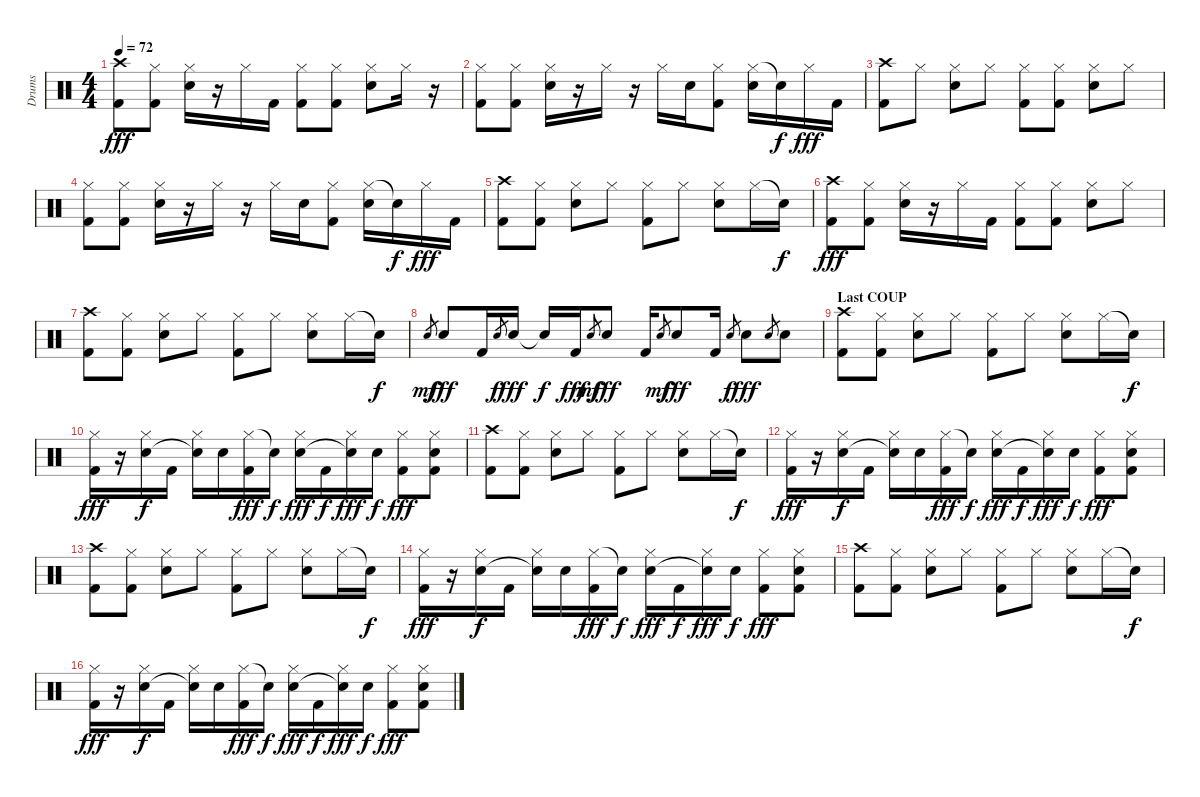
\track ("Drums" "Drums") {instrument percussion}
\staff {score}
\articulation defaults
\ts (4 4)
\tempo 72
\clef neutral
\ks c
("Crash high (hit)" "Kick (hit) 2").8{dy fff} ("Hi-Hat (closed)" "Kick (hit) 2").8 ("Hi-Hat (closed)" "Snare (hit) 2").16 r.16 "Hi-Hat (closed)".16 "Kick (hit) 2".16 ("Hi-Hat (closed)" "Kick (hit) 2").8 ("Hi-Hat (closed)" "Kick (hit) 2").8 ("Hi-Hat (closed)" "Snare (hit) 2").8 "Hi-Hat (closed)".16 r.16 |
("Hi-Hat (closed)" "Kick (hit) 2").8 ("Hi-Hat (closed)" "Kick (hit) 2").8 ("Hi-Hat (closed)" "Snare (hit) 2").16 r.16 "Hi-Hat (closed)".16 r.16 "Hi-Hat (closed)".16 "Snare (hit) 2".16 ("Hi-Hat (closed)" "Kick (hit) 2").8 ("Hi-Hat (closed)" "Snare (hit) 2").16 "Snare (hit)"{t}.16{dy f} "Hi-Hat (closed)".16{dy fff} "Kick (hit) 2".16 |
("Crash high (hit)" "Kick (hit) 2").8 "Hi-Hat (closed)".8 ("Hi-Hat (closed)" "Snare (hit) 2").8 "Hi-Hat (closed)".8 ("Hi-Hat (closed)" "Kick (hit) 2").8 ("Hi-Hat (closed)" "Kick (hit) 2").8 ("Hi-Hat (closed)" "Snare (hit) 2").8 "Hi-Hat (closed)".8 |
("Hi-Hat (closed)" "Kick (hit) 2").8 ("Hi-Hat (closed)" "Kick (hit) 2").8 ("Hi-Hat (closed)" "Snare (hit) 2").16 r.16 "Hi-Hat (closed)".16 r.16 "Hi-Hat (closed)".16 "Snare (hit) 2".16 ("Hi-Hat (closed)" "Kick (hit) 2").8 ("Hi-Hat (closed)" "Snare (hit) 2").16 "Snare (hit)"{t}.16{dy f} "Hi-Hat (closed)".16{dy fff} "Kick (hit) 2".16 |
("Crash high (hit)" "Kick (hit) 2").8 ("Hi-Hat (closed)" "Kick (hit) 2").8 ("Hi-Hat (closed)" "Snare (hit) 2").8 "Hi-Hat (closed)".8 ("Hi-Hat (closed)" "Kick (hit) 2").8 "Hi-Hat (closed)".8 ("Hi-Hat (closed)" "Snare (hit) 2").8 "Hi-Hat (closed)".16 "Snare (hit)"{t}.16{dy f} |
("Crash high (hit)" "Kick (hit) 2").8{dy fff} ("Hi-Hat (closed)" "Kick (hit) 2").8 ("Hi-Hat (closed)" "Snare (hit) 2").16 r.16 "Hi-Hat (closed)".16 "Kick (hit) 2".16 ("Hi-Hat (closed)" "Kick (hit) 2").8 ("Hi-Hat (closed)" "Kick (hit) 2").8 ("Hi-Hat (closed)" "Snare (hit) 2").8 "Hi-Hat (closed)".8 |
("Crash high (hit)" "Kick (hit) 2").8 ("Hi-Hat (closed)" "Kick (hit) 2").8 ("Hi-Hat (closed)" "Snare (hit) 2").8 "Hi-Hat (closed)".8 ("Hi-Hat (closed)" "Kick (hit) 2").8 "Hi-Hat (closed)".8 ("Hi-Hat (closed)" "Snare (hit) 2").8 "Hi-Hat (closed)".16 "Snare (hit)"{t}.16{dy f} |
"Snare (hit) 2".8{gr dy mf} "Snare (hit) 2".8{dy fff} "Kick (hit) 2".16 "Snare (hit) 2".8{gr dy f} "Snare (hit) 2".16{dy fff} "Snare (hit)"{t}.16{dy f} "Kick (hit) 2".16{dy fff} "Snare (hit) 2".8{gr dy mf} "Snare (hit) 2".8{dy fff} "Kick (hit) 2".16 "Snare (hit) 2".8{gr dy mf} "Snare (hit) 2".8{dy fff} "Kick (hit) 2".16 "Snare (hit) 2".8{gr dy f} "Snare (hit) 2".8{dy fff} "Snare (hit) 2".8{gr} "Snare (hit) 2".8 |
\section ("" "Last COUP")
("Crash high (hit)" "Kick (hit) 2").8 ("Hi-Hat (closed)" "Kick (hit) 2").8 ("Hi-Hat (closed)" "Snare (hit) 2").8 "Hi-Hat (closed)".8 ("Hi-Hat (closed)" "Kick (hit) 2").8 "Hi-Hat (closed)".8 ("Hi-Hat (closed)" "Snare (hit) 2").8 "Hi-Hat (closed)".16 "Snare (hit)"{t}.16{dy f} |
("Hi-Hat (closed)" "Kick (hit) 2").16{dy fff} r.16 ("Hi-Hat (closed)" "Snare (hit) 2").16{dy f} "Kick (hit) 2".16 ("Hi-Hat (closed)" "Snare (hit)"{t}).16 "Snare (hit) 2".16 ("Hi-Hat (closed)" "Kick (hit) 2").16{dy fff} "Snare (hit)"{t}.16{dy f} ("Hi-Hat (closed)" "Snare (hit) 2").16{dy fff} "Kick (hit) 2".16{dy f} ("Hi-Hat (closed)" "Snare (hit)"{t}).16{dy fff} "Snare (hit) 2".16{dy f} ("Hi-Hat (closed)" "Kick (hit) 2").8{dy fff} ("Hi-Hat (closed)" "Snare (hit) 2" "Kick (hit) 2").8 |
("Crash high (hit)" "Kick (hit) 2").8 ("Hi-Hat (closed)" "Kick (hit) 2").8 ("Hi-Hat (closed)" "Snare (hit) 2").8 "Hi-Hat (closed)".8 ("Hi-Hat (closed)" "Kick (hit) 2").8 "Hi-Hat (closed)".8 ("Hi-Hat (closed)" "Snare (hit) 2").8 "Hi-Hat (closed)".16 "Snare (hit)"{t}.16{dy f} |
("Hi-Hat (closed)" "Kick (hit) 2").16{dy fff} r.16 ("Hi-Hat (closed)" "Snare (hit) 2").16{dy f} "Kick (hit) 2".16 ("Hi-Hat (closed)" "Snare (hit)"{t}).16 "Snare (hit) 2".16 ("Hi-Hat (closed)" "Kick (hit) 2").16{dy fff} "Snare (hit)"{t}.16{dy f} ("Hi-Hat (closed)" "Snare (hit) 2").16{dy fff} "Kick (hit) 2".16{dy f} ("Hi-Hat (closed)" "Snare (hit)"{t}).16{dy fff} "Snare (hit) 2".16{dy f} ("Hi-Hat (closed)" "Kick (hit) 2").8{dy fff} ("Hi-Hat (closed)" "Snare (hit) 2" "Kick (hit) 2").8 |
("Crash high (hit)" "Kick (hit) 2").8 ("Hi-Hat (closed)" "Kick (hit) 2").8 ("Hi-Hat (closed)" "Snare (hit) 2").8 "Hi-Hat (closed)".8 ("Hi-Hat (closed)" "Kick (hit) 2").8 "Hi-Hat (closed)".8 ("Hi-Hat (closed)" "Snare (hit) 2").8 "Hi-Hat (closed)".16 "Snare (hit)"{t}.16{dy f} |
("Hi-Hat (closed)" "Kick (hit) 2").16{dy fff} r.16 ("Hi-Hat (closed)" "Snare (hit) 2").16{dy f} "Kick (hit) 2".16 ("Hi-Hat (closed)" "Snare (hit)"{t}).16 "Snare (hit) 2".16 ("Hi-Hat (closed)" "Kick (hit) 2").16{dy fff} "Snare (hit)"{t}.16{dy f} ("Hi-Hat (closed)" "Snare (hit) 2").16{dy fff} "Kick (hit) 2".16{dy f} ("Hi-Hat (closed)" "Snare (hit)"{t}).16{dy fff} "Snare (hit) 2".16{dy f} ("Hi-Hat (closed)" "Kick (hit) 2").8{dy fff} ("Hi-Hat (closed)" "Snare (hit) 2" "Kick (hit) 2").8 |
("Crash high (hit)" "Kick (hit) 2").8 ("Hi-Hat (closed)" "Kick (hit) 2").8 ("Hi-Hat (closed)" "Snare (hit) 2").8 "Hi-Hat (closed)".8 ("Hi-Hat (closed)" "Kick (hit) 2").8 "Hi-Hat (closed)".8 ("Hi-Hat (closed)" "Snare (hit) 2").8 "Hi-Hat (closed)".16 "Snare (hit)"{t}.16{dy f} |
("Hi-Hat (closed)" "Kick (hit) 2").16{dy fff} r.16 ("Hi-Hat (closed)" "Snare (hit) 2").16{dy f} "Kick (hit) 2".16 ("Hi-Hat (closed)" "Snare (hit)"{t}).16 "Snare (hit) 2".16 ("Hi-Hat (closed)" "Kick (hit) 2").16{dy fff} "Snare (hit)"{t}.16{dy f} ("Hi-Hat (closed)" "Snare (hit) 2").16{dy fff} "Kick (hit) 2".16{dy f} ("Hi-Hat (closed)" "Snare (hit)"{t}).16{dy fff} "Snare (hit) 2".16{dy f} ("Hi-Hat (closed)" "Kick (hit) 2").8{dy fff} ("Hi-Hat (closed)" "Snare (hit) 2" "Kick (hit) 2").8
